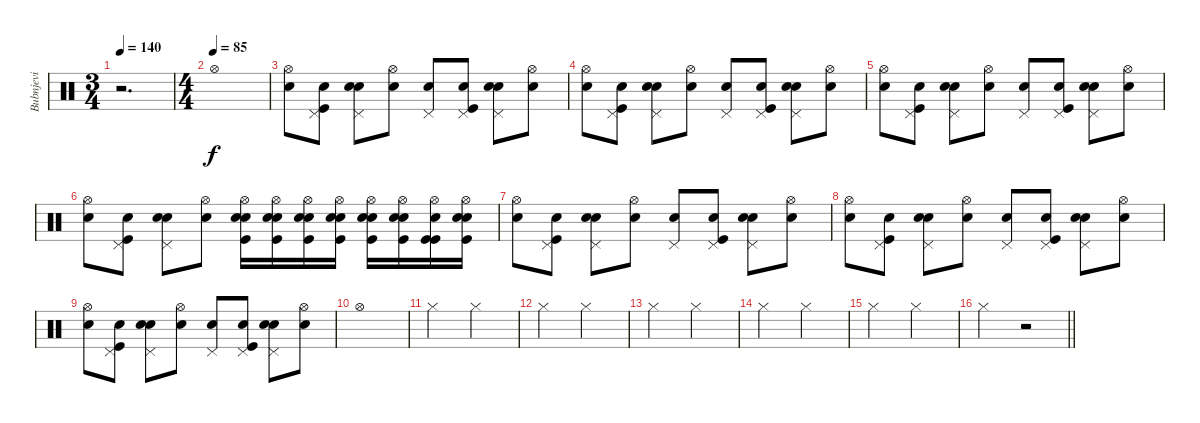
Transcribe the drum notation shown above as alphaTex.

\track ("Bubnjevi" "Bubnjevi") {instrument percussion}
\staff {score}
\articulation defaults
\ts (3 4)
\tempo 140
\clef neutral
\ks c
r.2{d dy f} |
\ts (4 4)
\tempo (85)
"Hi-Hat (open)".1 |
("Hi-Hat (open)" "Electric Snare (hit)").8 ("Pedal Hi-Hat (hit)" "Kick (hit)" "Electric Snare (hit)").8 ("Pedal Hi-Hat (hit)" "Snare (hit) 2" "Electric Snare (hit)").8 ("Hi-Hat (open)" "Electric Snare (hit)").8 ("Pedal Hi-Hat (hit)" "Electric Snare (hit)").8 ("Pedal Hi-Hat (hit)" "Kick (hit)" "Electric Snare (hit)").8 ("Pedal Hi-Hat (hit)" "Snare (hit) 2" "Electric Snare (hit)").8 ("Hi-Hat (open)" "Electric Snare (hit)").8 |
("Hi-Hat (open)" "Electric Snare (hit)").8 ("Pedal Hi-Hat (hit)" "Kick (hit)" "Electric Snare (hit)").8 ("Pedal Hi-Hat (hit)" "Snare (hit) 2" "Electric Snare (hit)").8 ("Hi-Hat (open)" "Electric Snare (hit)").8 ("Pedal Hi-Hat (hit)" "Electric Snare (hit)").8 ("Pedal Hi-Hat (hit)" "Kick (hit)" "Electric Snare (hit)").8 ("Pedal Hi-Hat (hit)" "Snare (hit) 2" "Electric Snare (hit)").8 ("Hi-Hat (open)" "Electric Snare (hit)").8 |
("Hi-Hat (open)" "Electric Snare (hit)").8 ("Pedal Hi-Hat (hit)" "Kick (hit)" "Electric Snare (hit)").8 ("Pedal Hi-Hat (hit)" "Snare (hit) 2" "Electric Snare (hit)").8 ("Hi-Hat (open)" "Electric Snare (hit)").8 ("Pedal Hi-Hat (hit)" "Electric Snare (hit)").8 ("Pedal Hi-Hat (hit)" "Kick (hit)" "Electric Snare (hit)").8 ("Pedal Hi-Hat (hit)" "Snare (hit) 2" "Electric Snare (hit)").8 ("Hi-Hat (open)" "Electric Snare (hit)").8 |
("Hi-Hat (open)" "Electric Snare (hit)").8 ("Pedal Hi-Hat (hit)" "Kick (hit)" "Electric Snare (hit)").8 ("Pedal Hi-Hat (hit)" "Snare (hit) 2" "Electric Snare (hit)").8 ("Hi-Hat (open)" "Electric Snare (hit)").8 ("Hi-Hat (open)" "Snare (hit) 2" "Kick (hit)" "Electric Snare (hit)").16 ("Hi-Hat (open)" "Snare (hit) 2" "Kick (hit)" "Electric Snare (hit)").16 ("Hi-Hat (open)" "Snare (hit) 2" "Kick (hit)" "Electric Snare (hit)").16 ("Hi-Hat (open)" "Kick (hit)" "Snare (hit) 2" "Electric Snare (hit)").16 ("Hi-Hat (open)" "Kick (hit)" "Snare (hit) 2" "Electric Snare (hit)").16 ("Hi-Hat (open)" "Kick (hit)" "Snare (hit) 2" "Electric Snare (hit)").16 ("Hi-Hat (open)" "Kick (hit)" "Kick (hit)" "Electric Snare (hit)").16 ("Hi-Hat (open)" "Kick (hit)" "Snare (hit) 2" "Electric Snare (hit)").16 |
("Hi-Hat (open)" "Electric Snare (hit)").8 ("Pedal Hi-Hat (hit)" "Kick (hit)" "Electric Snare (hit)").8 ("Pedal Hi-Hat (hit)" "Snare (hit) 2" "Electric Snare (hit)").8 ("Hi-Hat (open)" "Electric Snare (hit)").8 ("Pedal Hi-Hat (hit)" "Electric Snare (hit)").8 ("Pedal Hi-Hat (hit)" "Kick (hit)" "Electric Snare (hit)").8 ("Pedal Hi-Hat (hit)" "Snare (hit) 2" "Electric Snare (hit)").8 ("Hi-Hat (open)" "Electric Snare (hit)").8 |
("Hi-Hat (open)" "Electric Snare (hit)").8 ("Pedal Hi-Hat (hit)" "Kick (hit)" "Electric Snare (hit)").8 ("Pedal Hi-Hat (hit)" "Snare (hit) 2" "Electric Snare (hit)").8 ("Hi-Hat (open)" "Electric Snare (hit)").8 ("Pedal Hi-Hat (hit)" "Electric Snare (hit)").8 ("Pedal Hi-Hat (hit)" "Kick (hit)" "Electric Snare (hit)").8 ("Pedal Hi-Hat (hit)" "Snare (hit) 2" "Electric Snare (hit)").8 ("Hi-Hat (open)" "Electric Snare (hit)").8 |
("Hi-Hat (open)" "Electric Snare (hit)").8 ("Pedal Hi-Hat (hit)" "Kick (hit)" "Electric Snare (hit)").8 ("Pedal Hi-Hat (hit)" "Snare (hit) 2" "Electric Snare (hit)").8 ("Hi-Hat (open)" "Electric Snare (hit)").8 ("Pedal Hi-Hat (hit)" "Electric Snare (hit)").8 ("Pedal Hi-Hat (hit)" "Kick (hit)" "Electric Snare (hit)").8 ("Pedal Hi-Hat (hit)" "Snare (hit) 2" "Electric Snare (hit)").8 ("Hi-Hat (open)" "Electric Snare (hit)").8 |
"Hi-Hat (open)".1 |
"Hi-Hat (closed)".2 "Hi-Hat (closed)".2 |
"Hi-Hat (closed)".2 "Hi-Hat (closed)".2 |
"Hi-Hat (closed)".2 "Hi-Hat (closed)".2 |
"Hi-Hat (closed)".2 "Hi-Hat (closed)".2 |
"Hi-Hat (closed)".2 "Hi-Hat (closed)".2 |
\barLineRight lightlight "Hi-Hat (closed)".2
r.2
